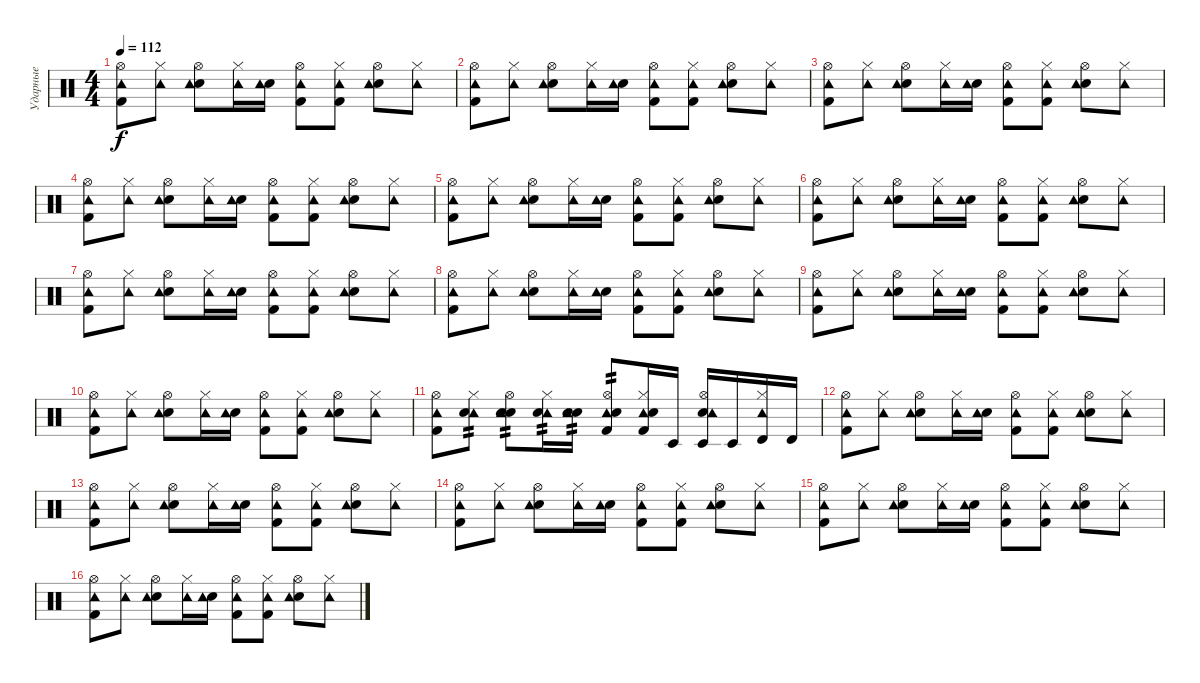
\track ("Ударные" "Ударные") {instrument percussion}
\staff {score}
\articulation defaults
\ts (4 4)
\tempo 112
\clef neutral
\ks c
("Hi-Hat (open)" "Kick (hit) 2" "Tambourine (hit)").8{dy f} ("Hi-Hat (closed)" "Tambourine (hit)").8 ("Hi-Hat (open)" "Electric Snare (hit)" "Tambourine (hit)").8 ("Hi-Hat (closed)" "Tambourine (hit)").16 ("Electric Snare (hit)" "Tambourine (hit)").16 ("Hi-Hat (open)" "Kick (hit) 2" "Tambourine (hit)").8 ("Hi-Hat (closed)" "Kick (hit) 2" "Tambourine (hit)").8 ("Hi-Hat (open)" "Electric Snare (hit)" "Tambourine (hit)").8 ("Hi-Hat (closed)" "Tambourine (hit)").8 |
("Hi-Hat (open)" "Kick (hit) 2" "Tambourine (hit)").8 ("Hi-Hat (closed)" "Tambourine (hit)").8 ("Hi-Hat (open)" "Electric Snare (hit)" "Tambourine (hit)").8 ("Hi-Hat (closed)" "Tambourine (hit)").16 ("Electric Snare (hit)" "Tambourine (hit)").16 ("Hi-Hat (open)" "Kick (hit) 2" "Tambourine (hit)").8 ("Hi-Hat (closed)" "Kick (hit) 2" "Tambourine (hit)").8 ("Hi-Hat (open)" "Electric Snare (hit)" "Tambourine (hit)").8 ("Hi-Hat (closed)" "Tambourine (hit)").8 |
("Hi-Hat (open)" "Kick (hit) 2" "Tambourine (hit)").8 ("Hi-Hat (closed)" "Tambourine (hit)").8 ("Hi-Hat (open)" "Electric Snare (hit)" "Tambourine (hit)").8 ("Hi-Hat (closed)" "Tambourine (hit)").16 ("Electric Snare (hit)" "Tambourine (hit)").16 ("Hi-Hat (open)" "Kick (hit) 2" "Tambourine (hit)").8 ("Hi-Hat (closed)" "Kick (hit) 2" "Tambourine (hit)").8 ("Hi-Hat (open)" "Electric Snare (hit)" "Tambourine (hit)").8 ("Hi-Hat (closed)" "Tambourine (hit)").8 |
("Hi-Hat (open)" "Kick (hit) 2" "Tambourine (hit)").8 ("Hi-Hat (closed)" "Tambourine (hit)").8 ("Hi-Hat (open)" "Electric Snare (hit)" "Tambourine (hit)").8 ("Hi-Hat (closed)" "Tambourine (hit)").16 ("Electric Snare (hit)" "Tambourine (hit)").16 ("Hi-Hat (open)" "Kick (hit) 2" "Tambourine (hit)").8 ("Hi-Hat (closed)" "Kick (hit) 2" "Tambourine (hit)").8 ("Hi-Hat (open)" "Electric Snare (hit)" "Tambourine (hit)").8 ("Hi-Hat (closed)" "Tambourine (hit)").8 |
("Hi-Hat (open)" "Kick (hit) 2" "Tambourine (hit)").8 ("Hi-Hat (closed)" "Tambourine (hit)").8 ("Hi-Hat (open)" "Electric Snare (hit)" "Tambourine (hit)").8 ("Hi-Hat (closed)" "Tambourine (hit)").16 ("Electric Snare (hit)" "Tambourine (hit)").16 ("Hi-Hat (open)" "Kick (hit) 2" "Tambourine (hit)").8 ("Hi-Hat (closed)" "Kick (hit) 2" "Tambourine (hit)").8 ("Hi-Hat (open)" "Electric Snare (hit)" "Tambourine (hit)").8 ("Hi-Hat (closed)" "Tambourine (hit)").8 |
("Hi-Hat (open)" "Kick (hit) 2" "Tambourine (hit)").8 ("Hi-Hat (closed)" "Tambourine (hit)").8 ("Hi-Hat (open)" "Electric Snare (hit)" "Tambourine (hit)").8 ("Hi-Hat (closed)" "Tambourine (hit)").16 ("Electric Snare (hit)" "Tambourine (hit)").16 ("Hi-Hat (open)" "Kick (hit) 2" "Tambourine (hit)").8 ("Hi-Hat (closed)" "Kick (hit) 2" "Tambourine (hit)").8 ("Hi-Hat (open)" "Electric Snare (hit)" "Tambourine (hit)").8 ("Hi-Hat (closed)" "Tambourine (hit)").8 |
("Hi-Hat (open)" "Kick (hit) 2" "Tambourine (hit)").8 ("Hi-Hat (closed)" "Tambourine (hit)").8 ("Hi-Hat (open)" "Electric Snare (hit)" "Tambourine (hit)").8 ("Hi-Hat (closed)" "Tambourine (hit)").16 ("Electric Snare (hit)" "Tambourine (hit)").16 ("Hi-Hat (open)" "Kick (hit) 2" "Tambourine (hit)").8 ("Hi-Hat (closed)" "Kick (hit) 2" "Tambourine (hit)").8 ("Hi-Hat (open)" "Electric Snare (hit)" "Tambourine (hit)").8 ("Hi-Hat (closed)" "Tambourine (hit)").8 |
("Hi-Hat (open)" "Kick (hit) 2" "Tambourine (hit)").8 ("Hi-Hat (closed)" "Tambourine (hit)").8 ("Hi-Hat (open)" "Electric Snare (hit)" "Tambourine (hit)").8 ("Hi-Hat (closed)" "Tambourine (hit)").16 ("Electric Snare (hit)" "Tambourine (hit)").16 ("Hi-Hat (open)" "Kick (hit) 2" "Tambourine (hit)").8 ("Hi-Hat (closed)" "Kick (hit) 2" "Tambourine (hit)").8 ("Hi-Hat (open)" "Electric Snare (hit)" "Tambourine (hit)").8 ("Hi-Hat (closed)" "Tambourine (hit)").8 |
("Hi-Hat (open)" "Kick (hit) 2" "Tambourine (hit)").8 ("Hi-Hat (closed)" "Tambourine (hit)").8 ("Hi-Hat (open)" "Electric Snare (hit)" "Tambourine (hit)").8 ("Hi-Hat (closed)" "Tambourine (hit)").16 ("Electric Snare (hit)" "Tambourine (hit)").16 ("Hi-Hat (open)" "Kick (hit) 2" "Tambourine (hit)").8 ("Hi-Hat (closed)" "Kick (hit) 2" "Tambourine (hit)").8 ("Hi-Hat (open)" "Electric Snare (hit)" "Tambourine (hit)").8 ("Hi-Hat (closed)" "Tambourine (hit)").8 |
("Hi-Hat (open)" "Kick (hit) 2" "Tambourine (hit)").8 ("Hi-Hat (closed)" "Tambourine (hit)").8 ("Hi-Hat (open)" "Electric Snare (hit)" "Tambourine (hit)").8 ("Hi-Hat (closed)" "Tambourine (hit)").16 ("Electric Snare (hit)" "Tambourine (hit)").16 ("Hi-Hat (open)" "Kick (hit) 2" "Tambourine (hit)").8 ("Hi-Hat (closed)" "Kick (hit) 2" "Tambourine (hit)").8 ("Hi-Hat (open)" "Electric Snare (hit)" "Tambourine (hit)").8 ("Hi-Hat (closed)" "Tambourine (hit)").8 |
("Hi-Hat (open)" "Kick (hit) 2" "Tambourine (hit)").8 ("Hi-Hat (closed)" "Tambourine (hit)" "Electric Snare (hit)").8{tp 2} ("Hi-Hat (open)" "Electric Snare (hit)" "Tambourine (hit)" "Electric Snare (hit)").8{tp 2} ("Hi-Hat (closed)" "Tambourine (hit)" "Electric Snare (hit)").16{tp 2} ("Electric Snare (hit)" "Tambourine (hit)" "Electric Snare (hit)").16{tp 2} ("Hi-Hat (open)" "Kick (hit) 2" "Tambourine (hit)" "Electric Snare (hit)").8{tp 2} ("Hi-Hat (closed)" "Kick (hit) 2" "Tambourine (hit)" "Electric Snare (hit)").16 "Timbale low (hit)".16 ("Hi-Hat (open)" "Electric Snare (hit)" "Tambourine (hit)" "Timbale low (hit)").16 "Timbale low (hit)".16 ("Hi-Hat (closed)" "Tambourine (hit)" "Timbale high (hit)").16 "Timbale high (hit)".16 |
("Hi-Hat (open)" "Kick (hit) 2" "Tambourine (hit)").8 ("Hi-Hat (closed)" "Tambourine (hit)").8 ("Hi-Hat (open)" "Electric Snare (hit)" "Tambourine (hit)").8 ("Hi-Hat (closed)" "Tambourine (hit)").16 ("Electric Snare (hit)" "Tambourine (hit)").16 ("Hi-Hat (open)" "Kick (hit) 2" "Tambourine (hit)").8 ("Hi-Hat (closed)" "Kick (hit) 2" "Tambourine (hit)").8 ("Hi-Hat (open)" "Electric Snare (hit)" "Tambourine (hit)").8 ("Hi-Hat (closed)" "Tambourine (hit)").8 |
("Hi-Hat (open)" "Kick (hit) 2" "Tambourine (hit)").8 ("Hi-Hat (closed)" "Tambourine (hit)").8 ("Hi-Hat (open)" "Electric Snare (hit)" "Tambourine (hit)").8 ("Hi-Hat (closed)" "Tambourine (hit)").16 ("Electric Snare (hit)" "Tambourine (hit)").16 ("Hi-Hat (open)" "Kick (hit) 2" "Tambourine (hit)").8 ("Hi-Hat (closed)" "Kick (hit) 2" "Tambourine (hit)").8 ("Hi-Hat (open)" "Electric Snare (hit)" "Tambourine (hit)").8 ("Hi-Hat (closed)" "Tambourine (hit)").8 |
("Hi-Hat (open)" "Kick (hit) 2" "Tambourine (hit)").8 ("Hi-Hat (closed)" "Tambourine (hit)").8 ("Hi-Hat (open)" "Electric Snare (hit)" "Tambourine (hit)").8 ("Hi-Hat (closed)" "Tambourine (hit)").16 ("Electric Snare (hit)" "Tambourine (hit)").16 ("Hi-Hat (open)" "Kick (hit) 2" "Tambourine (hit)").8 ("Hi-Hat (closed)" "Kick (hit) 2" "Tambourine (hit)").8 ("Hi-Hat (open)" "Electric Snare (hit)" "Tambourine (hit)").8 ("Hi-Hat (closed)" "Tambourine (hit)").8 |
("Hi-Hat (open)" "Kick (hit) 2" "Tambourine (hit)").8 ("Hi-Hat (closed)" "Tambourine (hit)").8 ("Hi-Hat (open)" "Electric Snare (hit)" "Tambourine (hit)").8 ("Hi-Hat (closed)" "Tambourine (hit)").16 ("Electric Snare (hit)" "Tambourine (hit)").16 ("Hi-Hat (open)" "Kick (hit) 2" "Tambourine (hit)").8 ("Hi-Hat (closed)" "Kick (hit) 2" "Tambourine (hit)").8 ("Hi-Hat (open)" "Electric Snare (hit)" "Tambourine (hit)").8 ("Hi-Hat (closed)" "Tambourine (hit)").8 |
("Hi-Hat (open)" "Kick (hit) 2" "Tambourine (hit)").8 ("Hi-Hat (closed)" "Tambourine (hit)").8 ("Hi-Hat (open)" "Electric Snare (hit)" "Tambourine (hit)").8 ("Hi-Hat (closed)" "Tambourine (hit)").16 ("Electric Snare (hit)" "Tambourine (hit)").16 ("Hi-Hat (open)" "Kick (hit) 2" "Tambourine (hit)").8 ("Hi-Hat (closed)" "Kick (hit) 2" "Tambourine (hit)").8 ("Hi-Hat (open)" "Electric Snare (hit)" "Tambourine (hit)").8 ("Hi-Hat (closed)" "Tambourine (hit)").8
